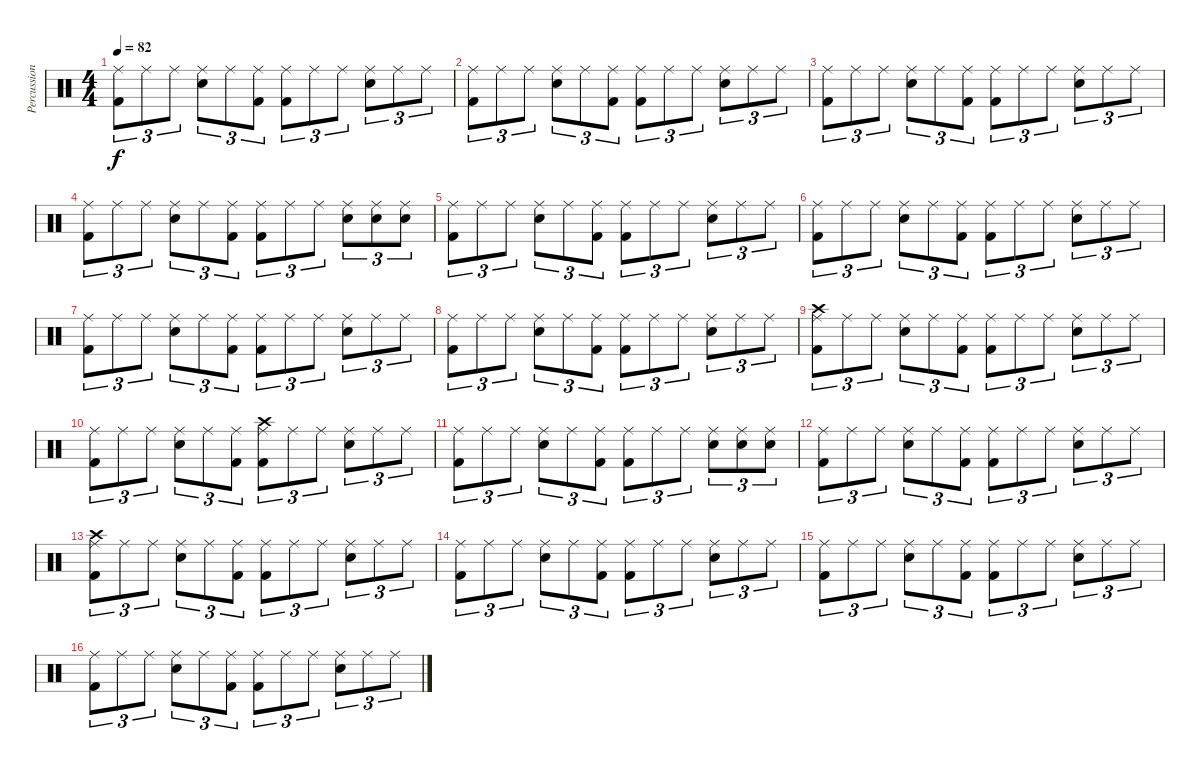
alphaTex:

\track ("Percussion" "Percussion") {instrument percussion}
\staff {score}
\articulation defaults
\ts (4 4)
\tempo 82
\clef neutral
\ks c
("Ride (middle)" "Kick (hit) 2").8{tu (3 2) dy f} "Ride (middle)".8{tu (3 2)} "Ride (middle)".8{tu (3 2)} ("Ride (middle)" "Snare (hit) 2").8{tu (3 2)} "Ride (middle)".8{tu (3 2)} ("Ride (middle)" "Kick (hit) 2").8{tu (3 2)} ("Ride (middle)" "Kick (hit) 2").8{tu (3 2)} "Ride (middle)".8{tu (3 2)} "Ride (middle)".8{tu (3 2)} ("Ride (middle)" "Snare (hit) 2").8{tu (3 2)} "Ride (middle)".8{tu (3 2)} "Ride (middle)".8{tu (3 2)} |
("Ride (middle)" "Kick (hit) 2").8{tu (3 2)} "Ride (middle)".8{tu (3 2)} "Ride (middle)".8{tu (3 2)} ("Ride (middle)" "Snare (hit) 2").8{tu (3 2)} "Ride (middle)".8{tu (3 2)} ("Ride (middle)" "Kick (hit) 2").8{tu (3 2)} ("Ride (middle)" "Kick (hit) 2").8{tu (3 2)} "Ride (middle)".8{tu (3 2)} "Ride (middle)".8{tu (3 2)} ("Ride (middle)" "Snare (hit) 2").8{tu (3 2)} "Ride (middle)".8{tu (3 2)} "Ride (middle)".8{tu (3 2)} |
("Ride (middle)" "Kick (hit) 2").8{tu (3 2)} "Ride (middle)".8{tu (3 2)} "Ride (middle)".8{tu (3 2)} ("Ride (middle)" "Snare (hit) 2").8{tu (3 2)} "Ride (middle)".8{tu (3 2)} ("Ride (middle)" "Kick (hit) 2").8{tu (3 2)} ("Ride (middle)" "Kick (hit) 2").8{tu (3 2)} "Ride (middle)".8{tu (3 2)} "Ride (middle)".8{tu (3 2)} ("Ride (middle)" "Snare (hit) 2").8{tu (3 2)} "Ride (middle)".8{tu (3 2)} "Ride (middle)".8{tu (3 2)} |
("Ride (middle)" "Kick (hit) 2").8{tu (3 2)} "Ride (middle)".8{tu (3 2)} "Ride (middle)".8{tu (3 2)} ("Ride (middle)" "Snare (hit) 2").8{tu (3 2)} "Ride (middle)".8{tu (3 2)} ("Ride (middle)" "Kick (hit) 2").8{tu (3 2)} ("Ride (middle)" "Kick (hit) 2").8{tu (3 2)} "Ride (middle)".8{tu (3 2)} "Ride (middle)".8{tu (3 2)} ("Ride (middle)" "Snare (hit) 2").8{tu (3 2)} ("Ride (middle)" "Snare (hit) 2").8{tu (3 2)} ("Ride (middle)" "Snare (hit) 2").8{tu (3 2)} |
("Ride (middle)" "Kick (hit) 2").8{tu (3 2)} "Ride (middle)".8{tu (3 2)} "Ride (middle)".8{tu (3 2)} ("Ride (middle)" "Snare (hit) 2").8{tu (3 2)} "Ride (middle)".8{tu (3 2)} ("Ride (middle)" "Kick (hit) 2").8{tu (3 2)} ("Ride (middle)" "Kick (hit) 2").8{tu (3 2)} "Ride (middle)".8{tu (3 2)} "Ride (middle)".8{tu (3 2)} ("Ride (middle)" "Snare (hit) 2").8{tu (3 2)} "Ride (middle)".8{tu (3 2)} "Ride (middle)".8{tu (3 2)} |
("Ride (middle)" "Kick (hit) 2").8{tu (3 2)} "Ride (middle)".8{tu (3 2)} "Ride (middle)".8{tu (3 2)} ("Ride (middle)" "Snare (hit) 2").8{tu (3 2)} "Ride (middle)".8{tu (3 2)} ("Ride (middle)" "Kick (hit) 2").8{tu (3 2)} ("Ride (middle)" "Kick (hit) 2").8{tu (3 2)} "Ride (middle)".8{tu (3 2)} "Ride (middle)".8{tu (3 2)} ("Ride (middle)" "Snare (hit) 2").8{tu (3 2)} "Ride (middle)".8{tu (3 2)} "Ride (middle)".8{tu (3 2)} |
("Ride (middle)" "Kick (hit) 2").8{tu (3 2)} "Ride (middle)".8{tu (3 2)} "Ride (middle)".8{tu (3 2)} ("Ride (middle)" "Snare (hit) 2").8{tu (3 2)} "Ride (middle)".8{tu (3 2)} ("Ride (middle)" "Kick (hit) 2").8{tu (3 2)} ("Ride (middle)" "Kick (hit) 2").8{tu (3 2)} "Ride (middle)".8{tu (3 2)} "Ride (middle)".8{tu (3 2)} ("Ride (middle)" "Snare (hit) 2").8{tu (3 2)} "Ride (middle)".8{tu (3 2)} "Ride (middle)".8{tu (3 2)} |
("Ride (middle)" "Kick (hit) 2").8{tu (3 2)} "Ride (middle)".8{tu (3 2)} "Ride (middle)".8{tu (3 2)} ("Ride (middle)" "Snare (hit) 2").8{tu (3 2)} "Ride (middle)".8{tu (3 2)} ("Ride (middle)" "Kick (hit) 2").8{tu (3 2)} ("Ride (middle)" "Kick (hit) 2").8{tu (3 2)} "Ride (middle)".8{tu (3 2)} "Ride (middle)".8{tu (3 2)} ("Ride (middle)" "Snare (hit) 2").8{tu (3 2)} "Ride (middle)".8{tu (3 2)} "Ride (middle)".8{tu (3 2)} |
("Ride (middle)" "Crash high (hit)" "Kick (hit) 2").8{tu (3 2)} "Ride (middle)".8{tu (3 2)} "Ride (middle)".8{tu (3 2)} ("Ride (middle)" "Snare (hit) 2").8{tu (3 2)} "Ride (middle)".8{tu (3 2)} ("Ride (middle)" "Kick (hit) 2").8{tu (3 2)} ("Ride (middle)" "Kick (hit) 2").8{tu (3 2)} "Ride (middle)".8{tu (3 2)} "Ride (middle)".8{tu (3 2)} ("Ride (middle)" "Snare (hit) 2").8{tu (3 2)} "Ride (middle)".8{tu (3 2)} "Ride (middle)".8{tu (3 2)} |
("Ride (middle)" "Kick (hit) 2").8{tu (3 2)} "Ride (middle)".8{tu (3 2)} "Ride (middle)".8{tu (3 2)} ("Ride (middle)" "Snare (hit) 2").8{tu (3 2)} "Ride (middle)".8{tu (3 2)} ("Ride (middle)" "Kick (hit) 2").8{tu (3 2)} ("Ride (middle)" "Crash high (hit)" "Kick (hit) 2").8{tu (3 2)} "Ride (middle)".8{tu (3 2)} "Ride (middle)".8{tu (3 2)} ("Ride (middle)" "Snare (hit) 2").8{tu (3 2)} "Ride (middle)".8{tu (3 2)} "Ride (middle)".8{tu (3 2)} |
("Ride (middle)" "Kick (hit) 2").8{tu (3 2)} "Ride (middle)".8{tu (3 2)} "Ride (middle)".8{tu (3 2)} ("Ride (middle)" "Snare (hit) 2").8{tu (3 2)} "Ride (middle)".8{tu (3 2)} ("Ride (middle)" "Kick (hit) 2").8{tu (3 2)} ("Ride (middle)" "Kick (hit) 2").8{tu (3 2)} "Ride (middle)".8{tu (3 2)} "Ride (middle)".8{tu (3 2)} ("Ride (middle)" "Snare (hit) 2").8{tu (3 2)} ("Ride (middle)" "Snare (hit) 2").8{tu (3 2)} ("Ride (middle)" "Snare (hit) 2").8{tu (3 2)} |
("Ride (middle)" "Kick (hit) 2").8{tu (3 2)} "Ride (middle)".8{tu (3 2)} "Ride (middle)".8{tu (3 2)} ("Ride (middle)" "Snare (hit) 2").8{tu (3 2)} "Ride (middle)".8{tu (3 2)} ("Ride (middle)" "Kick (hit) 2").8{tu (3 2)} ("Ride (middle)" "Kick (hit) 2").8{tu (3 2)} "Ride (middle)".8{tu (3 2)} "Ride (middle)".8{tu (3 2)} ("Ride (middle)" "Snare (hit) 2").8{tu (3 2)} "Ride (middle)".8{tu (3 2)} "Ride (middle)".8{tu (3 2)} |
("Ride (middle)" "Crash high (hit)" "Kick (hit) 2").8{tu (3 2)} "Ride (middle)".8{tu (3 2)} "Ride (middle)".8{tu (3 2)} ("Ride (middle)" "Snare (hit) 2").8{tu (3 2)} "Ride (middle)".8{tu (3 2)} ("Ride (middle)" "Kick (hit) 2").8{tu (3 2)} ("Ride (middle)" "Kick (hit) 2").8{tu (3 2)} "Ride (middle)".8{tu (3 2)} "Ride (middle)".8{tu (3 2)} ("Ride (middle)" "Snare (hit) 2").8{tu (3 2)} "Ride (middle)".8{tu (3 2)} "Ride (middle)".8{tu (3 2)} |
("Ride (middle)" "Kick (hit) 2").8{tu (3 2)} "Ride (middle)".8{tu (3 2)} "Ride (middle)".8{tu (3 2)} ("Ride (middle)" "Snare (hit) 2").8{tu (3 2)} "Ride (middle)".8{tu (3 2)} ("Ride (middle)" "Kick (hit) 2").8{tu (3 2)} ("Ride (middle)" "Kick (hit) 2").8{tu (3 2)} "Ride (middle)".8{tu (3 2)} "Ride (middle)".8{tu (3 2)} ("Ride (middle)" "Snare (hit) 2").8{tu (3 2)} "Ride (middle)".8{tu (3 2)} "Ride (middle)".8{tu (3 2)} |
("Ride (middle)" "Kick (hit) 2").8{tu (3 2)} "Ride (middle)".8{tu (3 2)} "Ride (middle)".8{tu (3 2)} ("Ride (middle)" "Snare (hit) 2").8{tu (3 2)} "Ride (middle)".8{tu (3 2)} ("Ride (middle)" "Kick (hit) 2").8{tu (3 2)} ("Ride (middle)" "Kick (hit) 2").8{tu (3 2)} "Ride (middle)".8{tu (3 2)} "Ride (middle)".8{tu (3 2)} ("Ride (middle)" "Snare (hit) 2").8{tu (3 2)} "Ride (middle)".8{tu (3 2)} "Ride (middle)".8{tu (3 2)} |
("Ride (middle)" "Kick (hit) 2").8{tu (3 2)} "Ride (middle)".8{tu (3 2)} "Ride (middle)".8{tu (3 2)} ("Ride (middle)" "Snare (hit) 2").8{tu (3 2)} "Ride (middle)".8{tu (3 2)} ("Ride (middle)" "Kick (hit) 2").8{tu (3 2)} ("Ride (middle)" "Kick (hit) 2").8{tu (3 2)} "Ride (middle)".8{tu (3 2)} "Ride (middle)".8{tu (3 2)} ("Ride (middle)" "Snare (hit) 2").8{tu (3 2)} "Ride (middle)".8{tu (3 2)} "Ride (middle)".8{tu (3 2)}
